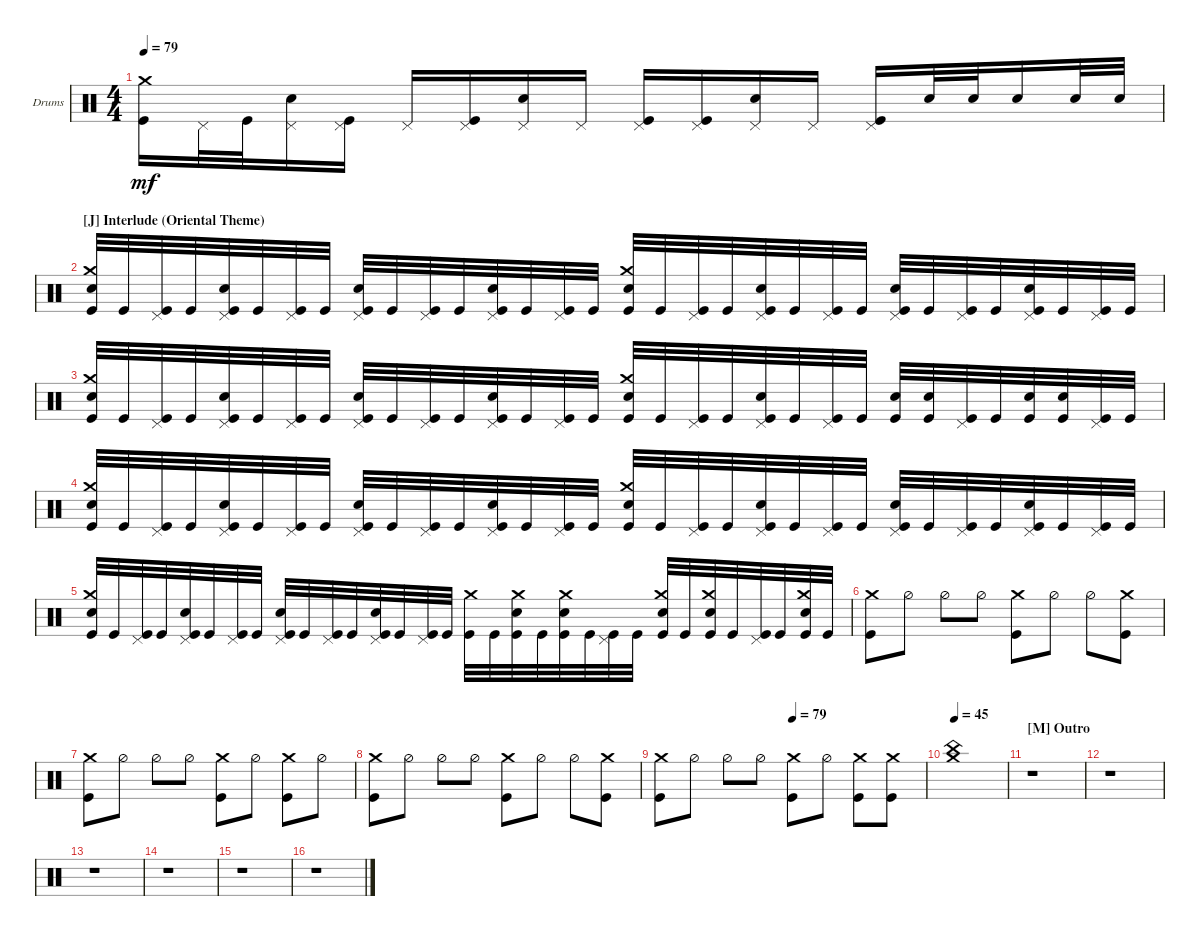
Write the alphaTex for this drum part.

\defaultSystemsLayout 4
\bracketExtendMode groupsimilarinstruments
\firstSystemTrackNameOrientation horizontal
\otherSystemsTrackNameOrientation horizontal
\track ("Drums" "Drums") {instrument percussion}
\staff {score}
\articulation defaults
\ts (4 4)
\tempo 79
\clef neutral
\ks c
("Kick (hit)" "Crash medium (hit)").16{dy mf} "Pedal Hi-Hat (hit)".32 "Kick (hit)".32{beam merge} ("Pedal Hi-Hat (hit)" "Snare (hit) 2").16 ("Pedal Hi-Hat (hit)" "Kick (hit)").16 "Pedal Hi-Hat (hit)".16 ("Pedal Hi-Hat (hit)" "Kick (hit)").16{beam merge} ("Pedal Hi-Hat (hit)" "Snare (hit) 2").16 "Pedal Hi-Hat (hit)".16 ("Kick (hit)" "Pedal Hi-Hat (hit)").16 ("Pedal Hi-Hat (hit)" "Kick (hit)").16{beam merge} ("Snare (hit) 2" "Pedal Hi-Hat (hit)").16 "Pedal Hi-Hat (hit)".16 ("Pedal Hi-Hat (hit)" "Kick (hit)").16 "Snare (hit) 2".32{beam merge} "Snare (hit) 2".32{beam merge} "Snare (hit) 2".16 "Snare (hit) 2".32 "Snare (hit) 2".32 |
\section ("J" "Interlude (Oriental Theme)")
("Kick (hit)" "Crash medium (hit)" "Snare (hit) 2").32 "Kick (hit)".32{beam merge} ("Pedal Hi-Hat (hit)" "Kick (hit)").32 "Kick (hit)".32{beam merge} ("Pedal Hi-Hat (hit)" "Kick (hit)" "Snare (hit) 2").32 "Kick (hit)".32{beam merge} ("Pedal Hi-Hat (hit)" "Kick (hit)").32 "Kick (hit)".32 ("Kick (hit)" "Snare (hit) 2" "Pedal Hi-Hat (hit)").32 "Kick (hit)".32{beam merge} ("Pedal Hi-Hat (hit)" "Kick (hit)").32 "Kick (hit)".32{beam merge} ("Pedal Hi-Hat (hit)" "Kick (hit)" "Snare (hit) 2").32 "Kick (hit)".32{beam merge} ("Pedal Hi-Hat (hit)" "Kick (hit)").32 "Kick (hit)".32 ("Kick (hit)" "Crash medium (hit)" "Snare (hit) 2").32 "Kick (hit)".32{beam merge} ("Pedal Hi-Hat (hit)" "Kick (hit)").32 "Kick (hit)".32{beam merge} ("Pedal Hi-Hat (hit)" "Kick (hit)" "Snare (hit) 2").32 "Kick (hit)".32{beam merge} ("Pedal Hi-Hat (hit)" "Kick (hit)").32 "Kick (hit)".32 ("Kick (hit)" "Snare (hit) 2" "Pedal Hi-Hat (hit)").32 "Kick (hit)".32{beam merge} ("Pedal Hi-Hat (hit)" "Kick (hit)").32 "Kick (hit)".32{beam merge} ("Pedal Hi-Hat (hit)" "Kick (hit)" "Snare (hit) 2").32 "Kick (hit)".32{beam merge} ("Pedal Hi-Hat (hit)" "Kick (hit)").32 "Kick (hit)".32 |
("Kick (hit)" "Crash medium (hit)" "Snare (hit) 2").32 "Kick (hit)".32{beam merge} ("Pedal Hi-Hat (hit)" "Kick (hit)").32 "Kick (hit)".32{beam merge} ("Pedal Hi-Hat (hit)" "Kick (hit)" "Snare (hit) 2").32 "Kick (hit)".32{beam merge} ("Pedal Hi-Hat (hit)" "Kick (hit)").32 "Kick (hit)".32 ("Kick (hit)" "Snare (hit) 2" "Pedal Hi-Hat (hit)").32 "Kick (hit)".32{beam merge} ("Pedal Hi-Hat (hit)" "Kick (hit)").32 "Kick (hit)".32{beam merge} ("Pedal Hi-Hat (hit)" "Kick (hit)" "Snare (hit) 2").32 "Kick (hit)".32{beam merge} ("Pedal Hi-Hat (hit)" "Kick (hit)").32 "Kick (hit)".32 ("Kick (hit)" "Snare (hit) 2" "Crash medium (hit)").32 "Kick (hit)".32{beam merge} ("Pedal Hi-Hat (hit)" "Kick (hit)").32 "Kick (hit)".32{beam merge} ("Pedal Hi-Hat (hit)" "Kick (hit)" "Snare (hit) 2").32 "Kick (hit)".32{beam merge} ("Pedal Hi-Hat (hit)" "Kick (hit)").32 "Kick (hit)".32 ("Kick (hit)" "Snare (hit) 2").32 ("Kick (hit)" "Snare (hit) 2").32{beam merge} ("Pedal Hi-Hat (hit)" "Kick (hit)").32 "Kick (hit)".32{beam merge} ("Kick (hit)" "Snare (hit) 2").32 ("Kick (hit)" "Snare (hit) 2").32{beam merge} ("Pedal Hi-Hat (hit)" "Kick (hit)").32 "Kick (hit)".32 |
("Kick (hit)" "Snare (hit) 2" "Crash medium (hit)").32 "Kick (hit)".32{beam merge} ("Pedal Hi-Hat (hit)" "Kick (hit)").32 "Kick (hit)".32{beam merge} ("Pedal Hi-Hat (hit)" "Kick (hit)" "Snare (hit) 2").32{beam merge} "Kick (hit)".32{beam merge} ("Pedal Hi-Hat (hit)" "Kick (hit)").32 "Kick (hit)".32 ("Kick (hit)" "Snare (hit) 2" "Pedal Hi-Hat (hit)").32 "Kick (hit)".32{beam merge} ("Pedal Hi-Hat (hit)" "Kick (hit)").32 "Kick (hit)".32{beam merge} ("Pedal Hi-Hat (hit)" "Kick (hit)" "Snare (hit) 2").32 "Kick (hit)".32{beam merge} ("Pedal Hi-Hat (hit)" "Kick (hit)").32 "Kick (hit)".32 ("Kick (hit)" "Snare (hit) 2" "Crash medium (hit)").32 "Kick (hit)".32{beam merge} ("Pedal Hi-Hat (hit)" "Kick (hit)").32 "Kick (hit)".32{beam merge} ("Pedal Hi-Hat (hit)" "Kick (hit)" "Snare (hit) 2").32{beam merge} "Kick (hit)".32{beam merge} ("Pedal Hi-Hat (hit)" "Kick (hit)").32 "Kick (hit)".32 ("Kick (hit)" "Snare (hit) 2" "Pedal Hi-Hat (hit)").32 "Kick (hit)".32{beam merge} ("Pedal Hi-Hat (hit)" "Kick (hit)").32 "Kick (hit)".32{beam merge} ("Pedal Hi-Hat (hit)" "Kick (hit)" "Snare (hit) 2").32 "Kick (hit)".32{beam merge} ("Pedal Hi-Hat (hit)" "Kick (hit)").32 "Kick (hit)".32 |
("Kick (hit)" "Crash medium (hit)" "Snare (hit) 2").32 "Kick (hit)".32{beam merge} ("Pedal Hi-Hat (hit)" "Kick (hit)").32 "Kick (hit)".32{beam merge} ("Pedal Hi-Hat (hit)" "Kick (hit)" "Snare (hit) 2").32 "Kick (hit)".32{beam merge} ("Pedal Hi-Hat (hit)" "Kick (hit)").32 "Kick (hit)".32 ("Kick (hit)" "Snare (hit) 2" "Pedal Hi-Hat (hit)").32 "Kick (hit)".32{beam merge} ("Pedal Hi-Hat (hit)" "Kick (hit)").32 "Kick (hit)".32{beam merge} ("Pedal Hi-Hat (hit)" "Kick (hit)" "Snare (hit) 2").32 "Kick (hit)".32{beam merge} ("Pedal Hi-Hat (hit)" "Kick (hit)").32 "Kick (hit)".32 ("Kick (hit)" "Crash medium (hit)").32 "Kick (hit)".32{beam merge} ("Kick (hit)" "Snare (hit) 2" "Crash medium (hit)").32 "Kick (hit)".32{beam merge} ("Kick (hit)" "Snare (hit) 2" "Crash medium (hit)").32 "Kick (hit)".32{beam merge} ("Pedal Hi-Hat (hit)" "Kick (hit)").32 "Kick (hit)".32 ("Kick (hit)" "Snare (hit) 2" "Crash medium (hit)").32 "Kick (hit)".32{beam merge} ("Kick (hit)" "Snare (hit) 2" "Crash medium (hit)").32 "Kick (hit)".32{beam merge} ("Pedal Hi-Hat (hit)" "Kick (hit)").32 "Kick (hit)".32{beam merge} ("Kick (hit)" "Snare (hit) 2" "Crash medium (hit)").32 "Kick (hit)".32 |
("Kick (hit)" "Crash medium (hit)").8 "Hi-Hat (half)".8 "Hi-Hat (half)".8 "Hi-Hat (half)".8 ("Kick (hit)" "Crash medium (hit)").8 "Hi-Hat (half)".8 "Hi-Hat (half)".8 ("Crash medium (hit)" "Kick (hit)").8 |
("Kick (hit)" "Crash medium (hit)").8 "Hi-Hat (half)".8 "Hi-Hat (half)".8 "Hi-Hat (half)".8 ("Kick (hit)" "Crash medium (hit)").8 "Hi-Hat (half)".8 ("Kick (hit)" "Crash medium (hit)").8 "Hi-Hat (half)".8 |
("Kick (hit)" "Crash medium (hit)").8 "Hi-Hat (half)".8 "Hi-Hat (half)".8 "Hi-Hat (half)".8 ("Kick (hit)" "Crash medium (hit)").8 "Hi-Hat (half)".8 "Hi-Hat (half)".8 ("Crash medium (hit)" "Kick (hit)").8 |
\tempo (79 0.5)
("Kick (hit)" "Crash medium (hit)").8 "Hi-Hat (half)".8 "Hi-Hat (half)".8 "Hi-Hat (half)".8 ("Kick (hit)" "Crash medium (hit)").8 "Hi-Hat (half)".8 ("Kick (hit)" "Crash medium (hit)").8 ("Kick (hit)" "Crash medium (hit)").8 |
\tempo 45
("China (hit)" "Crash medium (hit)").1 |
\section ("M" "Outro")
r.1 |
r.1 |
r.1 |
r.1 |
r.1 |
r.1
